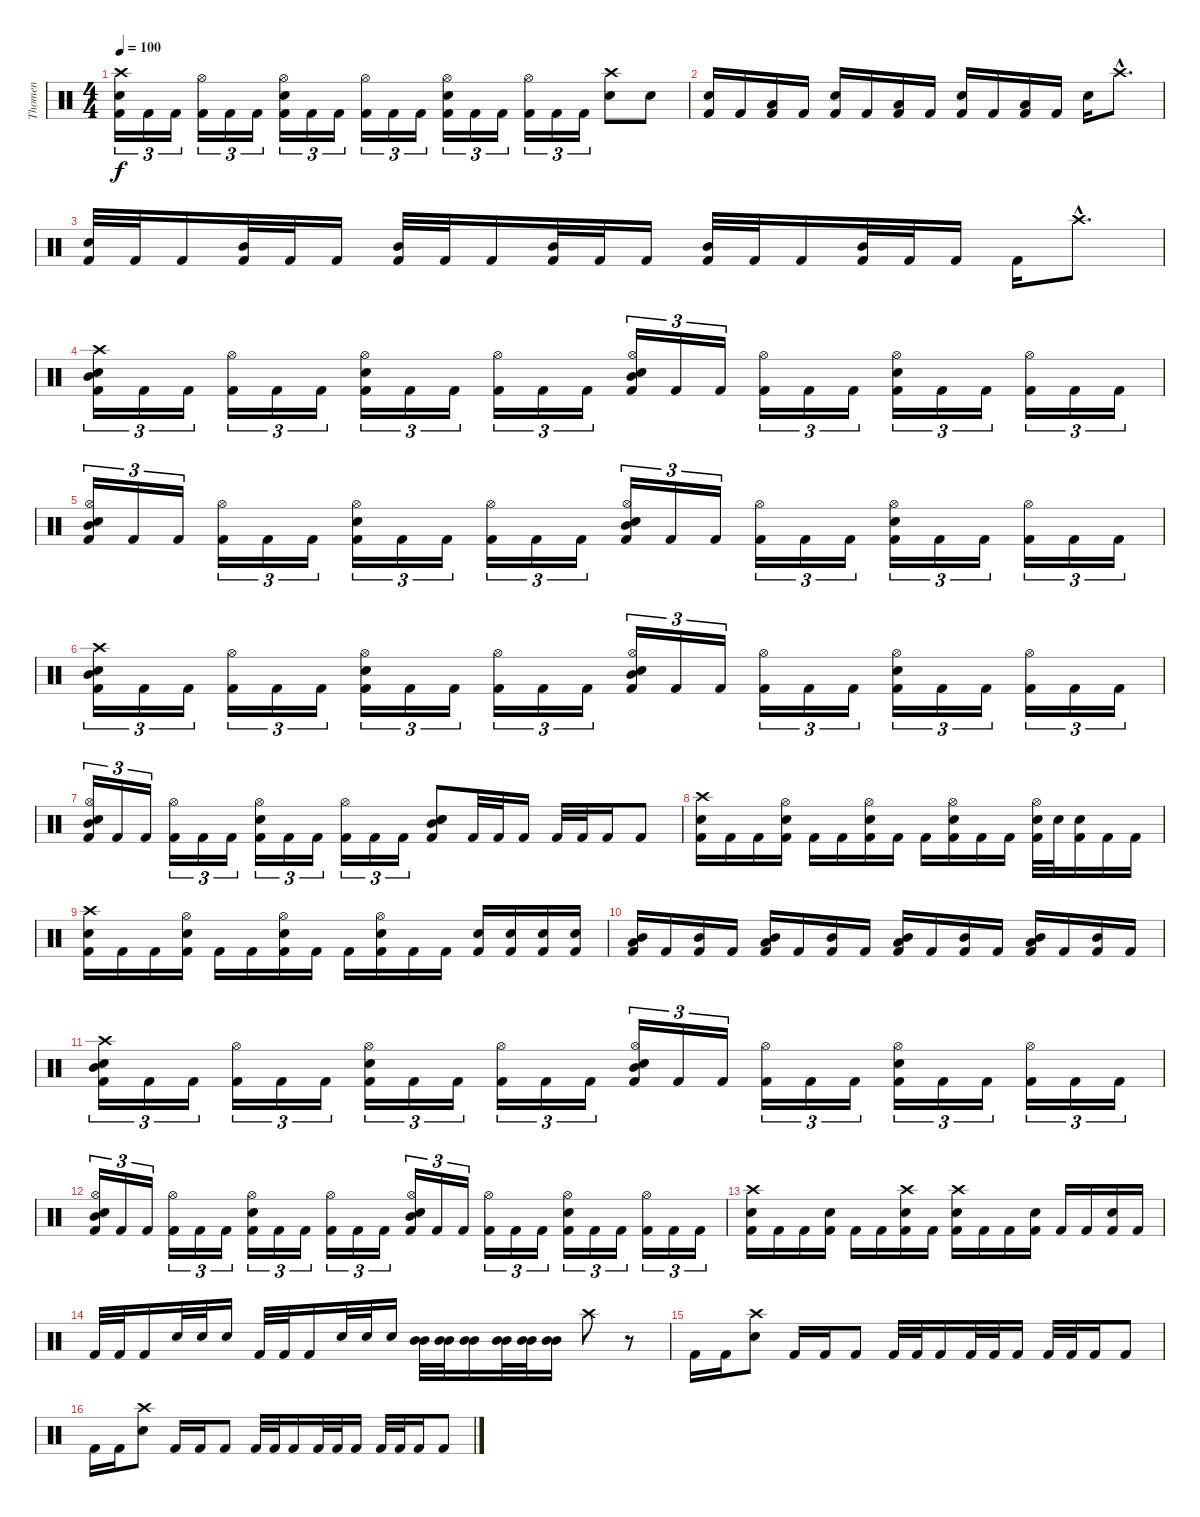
\track ("Thomen" "Thomen") {instrument percussion}
\staff {score}
\articulation defaults
\ts (4 4)
\tempo 100
\clef neutral
\ks c
("Crash high (hit)" "Snare (hit) 2" "Kick (hit) 2").16{tu (3 2) dy f} "Kick (hit) 2".16{tu (3 2)} "Kick (hit) 2".16{tu (3 2)} ("Hi-Hat (open)" "Kick (hit) 2").16{tu (3 2)} "Kick (hit) 2".16{tu (3 2)} "Kick (hit) 2".16{tu (3 2)} ("Hi-Hat (open)" "Snare (hit) 2" "Kick (hit) 2").16{tu (3 2)} "Kick (hit) 2".16{tu (3 2)} "Kick (hit) 2".16{tu (3 2)} ("Hi-Hat (open)" "Kick (hit) 2").16{tu (3 2)} "Kick (hit) 2".16{tu (3 2)} "Kick (hit) 2".16{tu (3 2)} ("Hi-Hat (open)" "Snare (hit) 2" "Kick (hit) 2").16{tu (3 2)} "Kick (hit) 2".16{tu (3 2)} "Kick (hit) 2".16{tu (3 2)} ("Hi-Hat (open)" "Kick (hit) 2").16{tu (3 2)} "Kick (hit) 2".16{tu (3 2)} "Kick (hit) 2".16{tu (3 2)} ("Crash high (hit)" "Snare (hit) 2").8 "Snare (hit) 2".8 |
("Snare (hit) 2" "Kick (hit) 2").16 "Kick (hit) 2".16 ("Low Tom (hit)" "Kick (hit) 2").16 "Kick (hit) 2".16 ("Snare (hit) 2" "Kick (hit) 2").16 "Kick (hit) 2".16 ("Low Tom (hit)" "Kick (hit) 2").16 "Kick (hit) 2".16 ("Snare (hit) 2" "Kick (hit) 2").16 "Kick (hit) 2".16 ("Low Tom (hit)" "Kick (hit) 2").16 "Kick (hit) 2".16 "Snare (hit) 2".16 "Crash high (hit)"{hac}.8{d} |
("Snare (hit) 2" "Kick (hit) 2").32 "Kick (hit) 2".32 "Kick (hit) 2".16 ("Mid Tom (hit)" "Kick (hit) 2").32 "Kick (hit) 2".32 "Kick (hit) 2".16 ("Mid Tom (hit)" "Kick (hit) 2").32 "Kick (hit) 2".32 "Kick (hit) 2".16 ("Mid Tom (hit)" "Kick (hit) 2").32 "Kick (hit) 2".32 "Kick (hit) 2".16 ("Mid Tom (hit)" "Kick (hit) 2").32 "Kick (hit) 2".32 "Kick (hit) 2".16 ("Mid Tom (hit)" "Kick (hit) 2").32 "Kick (hit) 2".32 "Kick (hit) 2".16 "Kick (hit) 2".16 "Crash high (hit)"{hac}.8{d} |
("Crash high (hit)" "Snare (hit) 2" "Kick (hit) 2" "Mid Tom (hit)").16{tu (3 2)} "Kick (hit) 2".16{tu (3 2)} "Kick (hit) 2".16{tu (3 2)} ("Hi-Hat (open)" "Kick (hit) 2").16{tu (3 2)} "Kick (hit) 2".16{tu (3 2)} "Kick (hit) 2".16{tu (3 2)} ("Hi-Hat (open)" "Snare (hit) 2" "Kick (hit) 2").16{tu (3 2)} "Kick (hit) 2".16{tu (3 2)} "Kick (hit) 2".16{tu (3 2)} ("Hi-Hat (open)" "Kick (hit) 2").16{tu (3 2)} "Kick (hit) 2".16{tu (3 2)} "Kick (hit) 2".16{tu (3 2)} ("Hi-Hat (open)" "Snare (hit) 2" "Kick (hit) 2" "Mid Tom (hit)").16{tu (3 2)} "Kick (hit) 2".16{tu (3 2)} "Kick (hit) 2".16{tu (3 2)} ("Hi-Hat (open)" "Kick (hit) 2").16{tu (3 2)} "Kick (hit) 2".16{tu (3 2)} "Kick (hit) 2".16{tu (3 2)} ("Hi-Hat (open)" "Snare (hit) 2" "Kick (hit) 2").16{tu (3 2)} "Kick (hit) 2".16{tu (3 2)} "Kick (hit) 2".16{tu (3 2)} ("Hi-Hat (open)" "Kick (hit) 2").16{tu (3 2)} "Kick (hit) 2".16{tu (3 2)} "Kick (hit) 2".16{tu (3 2)} |
("Hi-Hat (open)" "Snare (hit) 2" "Kick (hit) 2" "Mid Tom (hit)").16{tu (3 2)} "Kick (hit) 2".16{tu (3 2)} "Kick (hit) 2".16{tu (3 2)} ("Hi-Hat (open)" "Kick (hit) 2").16{tu (3 2)} "Kick (hit) 2".16{tu (3 2)} "Kick (hit) 2".16{tu (3 2)} ("Hi-Hat (open)" "Snare (hit) 2" "Kick (hit) 2").16{tu (3 2)} "Kick (hit) 2".16{tu (3 2)} "Kick (hit) 2".16{tu (3 2)} ("Hi-Hat (open)" "Kick (hit) 2").16{tu (3 2)} "Kick (hit) 2".16{tu (3 2)} "Kick (hit) 2".16{tu (3 2)} ("Hi-Hat (open)" "Snare (hit) 2" "Kick (hit) 2" "Mid Tom (hit)").16{tu (3 2)} "Kick (hit) 2".16{tu (3 2)} "Kick (hit) 2".16{tu (3 2)} ("Hi-Hat (open)" "Kick (hit) 2").16{tu (3 2)} "Kick (hit) 2".16{tu (3 2)} "Kick (hit) 2".16{tu (3 2)} ("Hi-Hat (open)" "Snare (hit) 2" "Kick (hit) 2").16{tu (3 2)} "Kick (hit) 2".16{tu (3 2)} "Kick (hit) 2".16{tu (3 2)} ("Hi-Hat (open)" "Kick (hit) 2").16{tu (3 2)} "Kick (hit) 2".16{tu (3 2)} "Kick (hit) 2".16{tu (3 2)} |
("Crash high (hit)" "Snare (hit) 2" "Kick (hit) 2" "Mid Tom (hit)").16{tu (3 2)} "Kick (hit) 2".16{tu (3 2)} "Kick (hit) 2".16{tu (3 2)} ("Hi-Hat (open)" "Kick (hit) 2").16{tu (3 2)} "Kick (hit) 2".16{tu (3 2)} "Kick (hit) 2".16{tu (3 2)} ("Hi-Hat (open)" "Snare (hit) 2" "Kick (hit) 2").16{tu (3 2)} "Kick (hit) 2".16{tu (3 2)} "Kick (hit) 2".16{tu (3 2)} ("Hi-Hat (open)" "Kick (hit) 2").16{tu (3 2)} "Kick (hit) 2".16{tu (3 2)} "Kick (hit) 2".16{tu (3 2)} ("Hi-Hat (open)" "Snare (hit) 2" "Kick (hit) 2" "Mid Tom (hit)").16{tu (3 2)} "Kick (hit) 2".16{tu (3 2)} "Kick (hit) 2".16{tu (3 2)} ("Hi-Hat (open)" "Kick (hit) 2").16{tu (3 2)} "Kick (hit) 2".16{tu (3 2)} "Kick (hit) 2".16{tu (3 2)} ("Hi-Hat (open)" "Snare (hit) 2" "Kick (hit) 2").16{tu (3 2)} "Kick (hit) 2".16{tu (3 2)} "Kick (hit) 2".16{tu (3 2)} ("Hi-Hat (open)" "Kick (hit) 2").16{tu (3 2)} "Kick (hit) 2".16{tu (3 2)} "Kick (hit) 2".16{tu (3 2)} |
("Hi-Hat (open)" "Snare (hit) 2" "Kick (hit) 2" "Mid Tom (hit)").16{tu (3 2)} "Kick (hit) 2".16{tu (3 2)} "Kick (hit) 2".16{tu (3 2)} ("Hi-Hat (open)" "Kick (hit) 2").16{tu (3 2)} "Kick (hit) 2".16{tu (3 2)} "Kick (hit) 2".16{tu (3 2)} ("Hi-Hat (open)" "Snare (hit) 2" "Kick (hit) 2").16{tu (3 2)} "Kick (hit) 2".16{tu (3 2)} "Kick (hit) 2".16{tu (3 2)} ("Hi-Hat (open)" "Kick (hit) 2").16{tu (3 2)} "Kick (hit) 2".16{tu (3 2)} "Kick (hit) 2".16{tu (3 2)} ("Electric Snare (hit)" "Snare (hit) 2" "Kick (hit) 2" "Mid Tom (hit)").8 "Kick (hit) 2".32 "Kick (hit) 2".32 "Kick (hit) 2".16 "Kick (hit) 2".32 "Kick (hit) 2".32 "Kick (hit) 2".16 "Kick (hit) 2".8 |
("Crash high (hit)" "Snare (hit) 2" "Kick (hit) 2").16 "Kick (hit) 2".16 "Kick (hit) 2".16 ("Hi-Hat (open)" "Snare (hit) 2" "Kick (hit) 2").16 "Kick (hit) 2".16 "Kick (hit) 2".16 ("Hi-Hat (open)" "Snare (hit) 2" "Kick (hit) 2").16 "Kick (hit) 2".16 "Kick (hit) 2".16 ("Hi-Hat (open)" "Snare (hit) 2" "Kick (hit) 2").16 "Kick (hit) 2".16 "Kick (hit) 2".16 ("Hi-Hat (open)" "Snare (hit) 2" "Kick (hit) 2").32 "Snare (hit) 2".32 ("Snare (hit) 2" "Kick (hit) 2").16 "Kick (hit) 2".16 "Kick (hit) 2".16 |
("Crash high (hit)" "Snare (hit) 2" "Kick (hit) 2").16 "Kick (hit) 2".16 "Kick (hit) 2".16 ("Hi-Hat (open)" "Snare (hit) 2" "Kick (hit) 2").16 "Kick (hit) 2".16 "Kick (hit) 2".16 ("Hi-Hat (open)" "Snare (hit) 2" "Kick (hit) 2").16 "Kick (hit) 2".16 "Kick (hit) 2".16 ("Hi-Hat (open)" "Snare (hit) 2" "Kick (hit) 2").16 "Kick (hit) 2".16 "Kick (hit) 2".16 ("Snare (hit) 2" "Kick (hit) 2").16 ("Snare (hit) 2" "Kick (hit) 2").16 ("Snare (hit) 2" "Kick (hit) 2").16 ("Snare (hit) 2" "Kick (hit) 2").16 |
("Low Tom (hit)" "Mid Tom (hit)" "Kick (hit) 2").16 "Kick (hit) 2".16 ("Mid Tom (hit)" "Kick (hit) 2").16 "Kick (hit) 2".16 ("Low Tom (hit)" "Mid Tom (hit)" "Kick (hit) 2").16 "Kick (hit) 2".16 ("Mid Tom (hit)" "Kick (hit) 2").16 "Kick (hit) 2".16 ("Low Tom (hit)" "Mid Tom (hit)" "Kick (hit) 2").16 "Kick (hit) 2".16 ("Mid Tom (hit)" "Kick (hit) 2").16 "Kick (hit) 2".16 ("Low Tom (hit)" "Mid Tom (hit)" "Kick (hit) 2").16 "Kick (hit) 2".16 ("Mid Tom (hit)" "Kick (hit) 2").16 "Kick (hit) 2".16 |
("Crash high (hit)" "Snare (hit) 2" "Kick (hit) 2" "Mid Tom (hit)").16{tu (3 2)} "Kick (hit) 2".16{tu (3 2)} "Kick (hit) 2".16{tu (3 2)} ("Hi-Hat (open)" "Kick (hit) 2").16{tu (3 2)} "Kick (hit) 2".16{tu (3 2)} "Kick (hit) 2".16{tu (3 2)} ("Hi-Hat (open)" "Snare (hit) 2" "Kick (hit) 2").16{tu (3 2)} "Kick (hit) 2".16{tu (3 2)} "Kick (hit) 2".16{tu (3 2)} ("Hi-Hat (open)" "Kick (hit) 2").16{tu (3 2)} "Kick (hit) 2".16{tu (3 2)} "Kick (hit) 2".16{tu (3 2)} ("Hi-Hat (open)" "Snare (hit) 2" "Kick (hit) 2" "Mid Tom (hit)").16{tu (3 2)} "Kick (hit) 2".16{tu (3 2)} "Kick (hit) 2".16{tu (3 2)} ("Hi-Hat (open)" "Kick (hit) 2").16{tu (3 2)} "Kick (hit) 2".16{tu (3 2)} "Kick (hit) 2".16{tu (3 2)} ("Hi-Hat (open)" "Snare (hit) 2" "Kick (hit) 2").16{tu (3 2)} "Kick (hit) 2".16{tu (3 2)} "Kick (hit) 2".16{tu (3 2)} ("Hi-Hat (open)" "Kick (hit) 2").16{tu (3 2)} "Kick (hit) 2".16{tu (3 2)} "Kick (hit) 2".16{tu (3 2)} |
("Hi-Hat (open)" "Snare (hit) 2" "Kick (hit) 2" "Mid Tom (hit)").16{tu (3 2)} "Kick (hit) 2".16{tu (3 2)} "Kick (hit) 2".16{tu (3 2)} ("Hi-Hat (open)" "Kick (hit) 2").16{tu (3 2)} "Kick (hit) 2".16{tu (3 2)} "Kick (hit) 2".16{tu (3 2)} ("Hi-Hat (open)" "Snare (hit) 2" "Kick (hit) 2").16{tu (3 2)} "Kick (hit) 2".16{tu (3 2)} "Kick (hit) 2".16{tu (3 2)} ("Hi-Hat (open)" "Kick (hit) 2").16{tu (3 2)} "Kick (hit) 2".16{tu (3 2)} "Kick (hit) 2".16{tu (3 2)} ("Hi-Hat (open)" "Snare (hit) 2" "Kick (hit) 2" "Mid Tom (hit)").16{tu (3 2)} "Kick (hit) 2".16{tu (3 2)} "Kick (hit) 2".16{tu (3 2)} ("Hi-Hat (open)" "Kick (hit) 2").16{tu (3 2)} "Kick (hit) 2".16{tu (3 2)} "Kick (hit) 2".16{tu (3 2)} ("Hi-Hat (open)" "Snare (hit) 2" "Kick (hit) 2").16{tu (3 2)} "Kick (hit) 2".16{tu (3 2)} "Kick (hit) 2".16{tu (3 2)} ("Hi-Hat (open)" "Kick (hit) 2").16{tu (3 2)} "Kick (hit) 2".16{tu (3 2)} "Kick (hit) 2".16{tu (3 2)} |
("Crash high (hit)" "Snare (hit) 2" "Kick (hit) 2").16 "Kick (hit) 2".16 "Kick (hit) 2".16 ("Snare (hit) 2" "Kick (hit) 2").16 "Kick (hit) 2".16 "Kick (hit) 2".16 ("Crash high (hit)" "Snare (hit) 2" "Kick (hit) 2").16 "Kick (hit) 2".16 ("Crash high (hit)" "Snare (hit) 2" "Kick (hit) 2").16 "Kick (hit) 2".16 "Kick (hit) 2".16 ("Snare (hit) 2" "Kick (hit) 2").16 "Kick (hit) 2".16 "Kick (hit) 2".16 ("Snare (hit) 2" "Kick (hit) 2").16 "Kick (hit) 2".16 |
"Kick (hit) 2".32 "Kick (hit) 2".32 "Kick (hit) 2".16 "Snare (hit) 2".32 "Snare (hit) 2".32 "Snare (hit) 2".16 "Kick (hit) 2".32 "Kick (hit) 2".32 "Kick (hit) 2".16 "Snare (hit) 2".32 "Snare (hit) 2".32 "Snare (hit) 2".16 ("Mid Tom (hit)" "Mid Tom (hit)").32 ("Mid Tom (hit)" "Mid Tom (hit)").32 ("Mid Tom (hit)" "Mid Tom (hit)").16 ("Mid Tom (hit)" "Mid Tom (hit)").32 ("Mid Tom (hit)" "Mid Tom (hit)").32 ("Mid Tom (hit)" "Mid Tom (hit)").16 "Crash high (hit)".8 r.8 |
"Kick (hit) 2".16 "Kick (hit) 2".16 ("Crash high (hit)" "Snare (hit) 2").8 "Kick (hit) 2".16 "Kick (hit) 2".16 "Kick (hit) 2".8 "Kick (hit) 2".32 "Kick (hit) 2".32 "Kick (hit) 2".16 "Kick (hit) 2".32 "Kick (hit) 2".32 "Kick (hit) 2".16 "Kick (hit) 2".32 "Kick (hit) 2".32 "Kick (hit) 2".16 "Kick (hit) 2".8 |
"Kick (hit) 2".16 "Kick (hit) 2".16 ("Crash high (hit)" "Snare (hit) 2").8 "Kick (hit) 2".16 "Kick (hit) 2".16 "Kick (hit) 2".8 "Kick (hit) 2".32 "Kick (hit) 2".32 "Kick (hit) 2".16 "Kick (hit) 2".32 "Kick (hit) 2".32 "Kick (hit) 2".16 "Kick (hit) 2".32 "Kick (hit) 2".32 "Kick (hit) 2".16 "Kick (hit) 2".8
